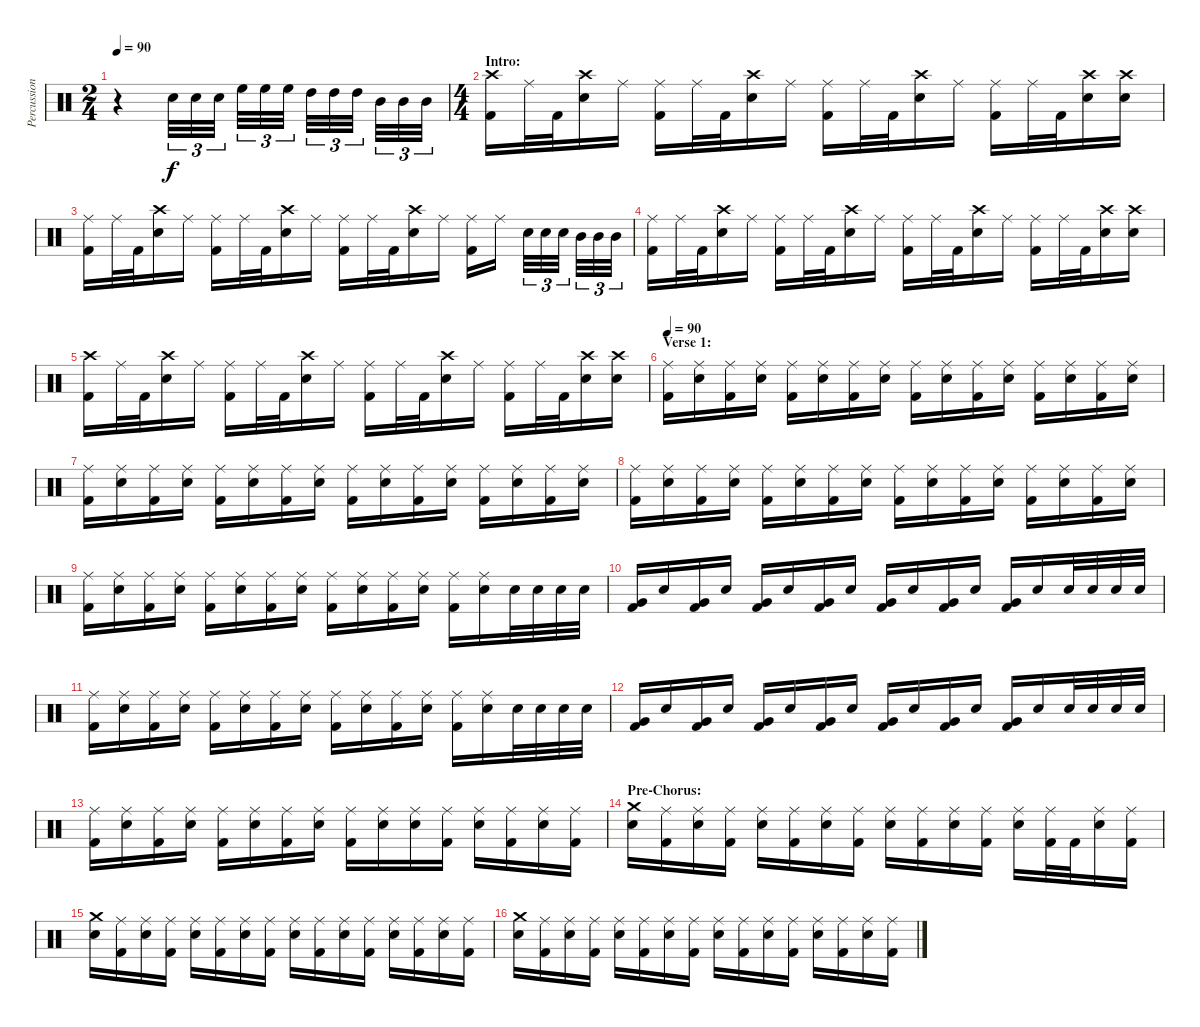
\track ("Percussion" "Percussion") {instrument percussion}
\staff {score}
\articulation defaults
\ts (2 4)
\tempo 90
\tempo 48
\tempo 90
\clef neutral
\ks c
r.4{dy f} "Electric Snare (hit)".32{tu (3 2)} "Electric Snare (hit)".32{tu (3 2)} "Electric Snare (hit)".32{tu (3 2)} "High Floor Tom (hit)".32{tu (3 2)} "High Floor Tom (hit)".32{tu (3 2)} "High Floor Tom (hit)".32{tu (3 2)} "High Tom (hit)".32{tu (3 2)} "High Tom (hit)".32{tu (3 2)} "High Tom (hit)".32{tu (3 2)} "Mid Tom (hit)".32{tu (3 2)} "Mid Tom (hit)".32{tu (3 2)} "Mid Tom (hit)".32{tu (3 2)} |
\ts (4 4)
\section ("" "Intro:")
("Crash high (hit)" "Kick (hit) 2").16 "Ride (middle)".32 "Kick (hit) 2".32 ("Crash high (hit)" "Electric Snare (hit)").16 "Ride (middle)".16 ("Ride (middle)" "Kick (hit) 2").16 "Ride (middle)".32 "Kick (hit) 2".32 ("Crash high (hit)" "Electric Snare (hit)").16 "Ride (middle)".16 ("Ride (middle)" "Kick (hit) 2").16 "Ride (middle)".32 "Kick (hit) 2".32 ("Crash high (hit)" "Electric Snare (hit)").16 "Ride (middle)".16 ("Ride (middle)" "Kick (hit) 2").16 "Ride (middle)".32 "Kick (hit) 2".32 ("Crash high (hit)" "Electric Snare (hit)").16 ("Crash high (hit)" "Electric Snare (hit)").16 |
("Ride (middle)" "Kick (hit) 2").16 "Ride (middle)".32 "Kick (hit) 2".32 ("Crash high (hit)" "Electric Snare (hit)").16 "Ride (middle)".16 ("Ride (middle)" "Kick (hit) 2").16 "Ride (middle)".32 "Kick (hit) 2".32 ("Crash high (hit)" "Electric Snare (hit)").16 "Ride (middle)".16 ("Ride (middle)" "Kick (hit) 2").16 "Ride (middle)".32 "Kick (hit) 2".32 ("Crash high (hit)" "Electric Snare (hit)").16 "Ride (middle)".16 ("Ride (middle)" "Kick (hit) 2").16 "Ride (middle)".16 "Electric Snare (hit)".32{tu (3 2)} "Electric Snare (hit)".32{tu (3 2)} "Electric Snare (hit)".32{tu (3 2)} "Mid Tom (hit)".32{tu (3 2)} "Mid Tom (hit)".32{tu (3 2)} "Mid Tom (hit)".32{tu (3 2)} |
("Ride (middle)" "Kick (hit) 2").16 "Ride (middle)".32 "Kick (hit) 2".32 ("Crash high (hit)" "Electric Snare (hit)").16 "Ride (middle)".16 ("Ride (middle)" "Kick (hit) 2").16 "Ride (middle)".32 "Kick (hit) 2".32 ("Crash high (hit)" "Electric Snare (hit)").16 "Ride (middle)".16 ("Ride (middle)" "Kick (hit) 2").16 "Ride (middle)".32 "Kick (hit) 2".32 ("Crash high (hit)" "Electric Snare (hit)").16 "Ride (middle)".16 ("Ride (middle)" "Kick (hit) 2").16 "Ride (middle)".32 "Kick (hit) 2".32 ("Crash high (hit)" "Electric Snare (hit)").16 ("Crash high (hit)" "Electric Snare (hit)").16 |
("Crash high (hit)" "Kick (hit) 2").16 "Ride (middle)".32 "Kick (hit) 2".32 ("Crash high (hit)" "Electric Snare (hit)").16 "Ride (middle)".16 ("Ride (middle)" "Kick (hit) 2").16 "Ride (middle)".32 "Kick (hit) 2".32 ("Crash high (hit)" "Electric Snare (hit)").16 "Ride (middle)".16 ("Ride (middle)" "Kick (hit) 2").16 "Ride (middle)".32 "Kick (hit) 2".32 ("Crash high (hit)" "Electric Snare (hit)").16 "Ride (middle)".16 ("Ride (middle)" "Kick (hit) 2").16 "Ride (middle)".32 "Kick (hit) 2".32 ("Crash high (hit)" "Electric Snare (hit)").16 ("Crash high (hit)" "Electric Snare (hit)").16 |
\section ("" "Verse 1:")
\tempo 90
("Ride (middle)" "Kick (hit) 2").16 ("Ride (middle)" "Electric Snare (hit)").16 ("Ride (middle)" "Kick (hit) 2").16 ("Ride (middle)" "Electric Snare (hit)").16 ("Ride (middle)" "Kick (hit) 2").16 ("Ride (middle)" "Electric Snare (hit)").16 ("Ride (middle)" "Kick (hit) 2").16 ("Ride (middle)" "Electric Snare (hit)").16 ("Ride (middle)" "Kick (hit) 2").16 ("Ride (middle)" "Electric Snare (hit)").16 ("Ride (middle)" "Kick (hit) 2").16 ("Ride (middle)" "Electric Snare (hit)").16 ("Ride (middle)" "Kick (hit) 2").16 ("Ride (middle)" "Electric Snare (hit)").16 ("Ride (middle)" "Kick (hit) 2").16 ("Ride (middle)" "Electric Snare (hit)").16 |
("Ride (middle)" "Kick (hit) 2").16 ("Ride (middle)" "Electric Snare (hit)").16 ("Ride (middle)" "Kick (hit) 2").16 ("Ride (middle)" "Electric Snare (hit)").16 ("Ride (middle)" "Kick (hit) 2").16 ("Ride (middle)" "Electric Snare (hit)").16 ("Ride (middle)" "Kick (hit) 2").16 ("Ride (middle)" "Electric Snare (hit)").16 ("Ride (middle)" "Kick (hit) 2").16 ("Ride (middle)" "Electric Snare (hit)").16 ("Ride (middle)" "Kick (hit) 2").16 ("Ride (middle)" "Electric Snare (hit)").16 ("Ride (middle)" "Kick (hit) 2").16 ("Ride (middle)" "Electric Snare (hit)").16 ("Ride (middle)" "Kick (hit) 2").16 ("Ride (middle)" "Electric Snare (hit)").16 |
("Ride (middle)" "Kick (hit) 2").16 ("Ride (middle)" "Electric Snare (hit)").16 ("Ride (middle)" "Kick (hit) 2").16 ("Ride (middle)" "Electric Snare (hit)").16 ("Ride (middle)" "Kick (hit) 2").16 ("Ride (middle)" "Electric Snare (hit)").16 ("Ride (middle)" "Kick (hit) 2").16 ("Ride (middle)" "Electric Snare (hit)").16 ("Ride (middle)" "Kick (hit) 2").16 ("Ride (middle)" "Electric Snare (hit)").16 ("Ride (middle)" "Kick (hit) 2").16 ("Ride (middle)" "Electric Snare (hit)").16 ("Ride (middle)" "Kick (hit) 2").16 ("Ride (middle)" "Electric Snare (hit)").16 ("Ride (middle)" "Kick (hit) 2").16 ("Ride (middle)" "Electric Snare (hit)").16 |
("Ride (middle)" "Kick (hit) 2").16 ("Ride (middle)" "Electric Snare (hit)").16 ("Ride (middle)" "Kick (hit) 2").16 ("Ride (middle)" "Electric Snare (hit)").16 ("Ride (middle)" "Kick (hit) 2").16 ("Ride (middle)" "Electric Snare (hit)").16 ("Ride (middle)" "Kick (hit) 2").16 ("Ride (middle)" "Electric Snare (hit)").16 ("Ride (middle)" "Kick (hit) 2").16 ("Ride (middle)" "Electric Snare (hit)").16 ("Ride (middle)" "Kick (hit) 2").16 ("Ride (middle)" "Electric Snare (hit)").16 ("Ride (middle)" "Kick (hit) 2").16 ("Ride (middle)" "Electric Snare (hit)").16 "Electric Snare (hit)".32 "Electric Snare (hit)".32 "Electric Snare (hit)".32 "Electric Snare (hit)".32 |
("Very Low Tom (hit)" "Kick (hit) 2").16 "Electric Snare (hit)".16 ("Very Low Tom (hit)" "Kick (hit) 2").16 "Electric Snare (hit)".16 ("Very Low Tom (hit)" "Kick (hit) 2").16 "Electric Snare (hit)".16 ("Very Low Tom (hit)" "Kick (hit) 2").16 "Electric Snare (hit)".16 ("Very Low Tom (hit)" "Kick (hit) 2").16 "Electric Snare (hit)".16 ("Very Low Tom (hit)" "Kick (hit) 2").16 "Electric Snare (hit)".16 ("Very Low Tom (hit)" "Kick (hit) 2").16 "Electric Snare (hit)".16 "Electric Snare (hit)".32 "Electric Snare (hit)".32 "Electric Snare (hit)".32 "Electric Snare (hit)".32 |
("Ride (middle)" "Kick (hit) 2").16 ("Ride (middle)" "Electric Snare (hit)").16 ("Ride (middle)" "Kick (hit) 2").16 ("Ride (middle)" "Electric Snare (hit)").16 ("Ride (middle)" "Kick (hit) 2").16 ("Ride (middle)" "Electric Snare (hit)").16 ("Ride (middle)" "Kick (hit) 2").16 ("Ride (middle)" "Electric Snare (hit)").16 ("Ride (middle)" "Kick (hit) 2").16 ("Ride (middle)" "Electric Snare (hit)").16 ("Ride (middle)" "Kick (hit) 2").16 ("Ride (middle)" "Electric Snare (hit)").16 ("Ride (middle)" "Kick (hit) 2").16 ("Ride (middle)" "Electric Snare (hit)").16 "Electric Snare (hit)".32 "Electric Snare (hit)".32 "Electric Snare (hit)".32 "Electric Snare (hit)".32 |
("Very Low Tom (hit)" "Kick (hit) 2").16 "Electric Snare (hit)".16 ("Very Low Tom (hit)" "Kick (hit) 2").16 "Electric Snare (hit)".16 ("Very Low Tom (hit)" "Kick (hit) 2").16 "Electric Snare (hit)".16 ("Very Low Tom (hit)" "Kick (hit) 2").16 "Electric Snare (hit)".16 ("Very Low Tom (hit)" "Kick (hit) 2").16 "Electric Snare (hit)".16 ("Very Low Tom (hit)" "Kick (hit) 2").16 "Electric Snare (hit)".16 ("Very Low Tom (hit)" "Kick (hit) 2").16 "Electric Snare (hit)".16 "Electric Snare (hit)".32 "Electric Snare (hit)".32 "Electric Snare (hit)".32 "Electric Snare (hit)".32 |
("Ride (middle)" "Kick (hit) 2").16 ("Ride (middle)" "Electric Snare (hit)").16 ("Ride (middle)" "Kick (hit) 2").16 ("Ride (middle)" "Electric Snare (hit)").16 ("Ride (middle)" "Kick (hit) 2").16 ("Ride (middle)" "Electric Snare (hit)").16 ("Ride (middle)" "Kick (hit) 2").16 ("Ride (middle)" "Electric Snare (hit)").16 ("Ride (middle)" "Kick (hit) 2").16 ("Ride (middle)" "Electric Snare (hit)").16 ("Ride (middle)" "Electric Snare (hit)").16 ("Ride (middle)" "Kick (hit) 2").16 ("Ride (middle)" "Electric Snare (hit)").16 ("Ride (middle)" "Kick (hit) 2").16 ("Ride (middle)" "Electric Snare (hit)").16 ("Ride (middle)" "Kick (hit) 2").16 |
\section ("" "Pre-Chorus:")
("Crash medium (hit)" "Electric Snare (hit)").16 ("Ride (middle)" "Kick (hit) 2").16 ("Ride (middle)" "Electric Snare (hit)").16 ("Ride (middle)" "Kick (hit) 2").16 ("Ride (middle)" "Electric Snare (hit)").16 ("Ride (middle)" "Kick (hit) 2").16 ("Ride (middle)" "Electric Snare (hit)").16 ("Ride (middle)" "Kick (hit) 2").16 ("Ride (middle)" "Electric Snare (hit)").16 ("Ride (middle)" "Kick (hit) 2").16 ("Ride (middle)" "Electric Snare (hit)").16 ("Ride (middle)" "Kick (hit) 2").16 ("Ride (middle)" "Electric Snare (hit)").16 ("Ride (middle)" "Kick (hit) 2").32 "Kick (hit) 2".32 ("Ride (middle)" "Electric Snare (hit)").16 ("Ride (middle)" "Kick (hit) 2").16 |
("Crash medium (hit)" "Electric Snare (hit)").16 ("Ride (middle)" "Kick (hit) 2").16 ("Ride (middle)" "Electric Snare (hit)").16 ("Ride (middle)" "Kick (hit) 2").16 ("Ride (middle)" "Electric Snare (hit)").16 ("Ride (middle)" "Kick (hit) 2").16 ("Ride (middle)" "Electric Snare (hit)").16 ("Ride (middle)" "Kick (hit) 2").16 ("Ride (middle)" "Electric Snare (hit)").16 ("Ride (middle)" "Kick (hit) 2").16 ("Ride (middle)" "Electric Snare (hit)").16 ("Ride (middle)" "Kick (hit) 2").16 ("Ride (middle)" "Electric Snare (hit)").16 ("Ride (middle)" "Kick (hit) 2").16 ("Ride (middle)" "Electric Snare (hit)").16 ("Ride (middle)" "Kick (hit) 2").16 |
("Crash medium (hit)" "Electric Snare (hit)").16 ("Ride (middle)" "Kick (hit) 2").16 ("Ride (middle)" "Electric Snare (hit)").16 ("Ride (middle)" "Kick (hit) 2").16 ("Ride (middle)" "Electric Snare (hit)").16 ("Ride (middle)" "Kick (hit) 2").16 ("Ride (middle)" "Electric Snare (hit)").16 ("Ride (middle)" "Kick (hit) 2").16 ("Ride (middle)" "Electric Snare (hit)").16 ("Ride (middle)" "Kick (hit) 2").16 ("Ride (middle)" "Electric Snare (hit)").16 ("Ride (middle)" "Kick (hit) 2").16 ("Ride (middle)" "Electric Snare (hit)").16 ("Ride (middle)" "Kick (hit) 2").16 ("Ride (middle)" "Electric Snare (hit)").16 ("Ride (middle)" "Kick (hit) 2").16
